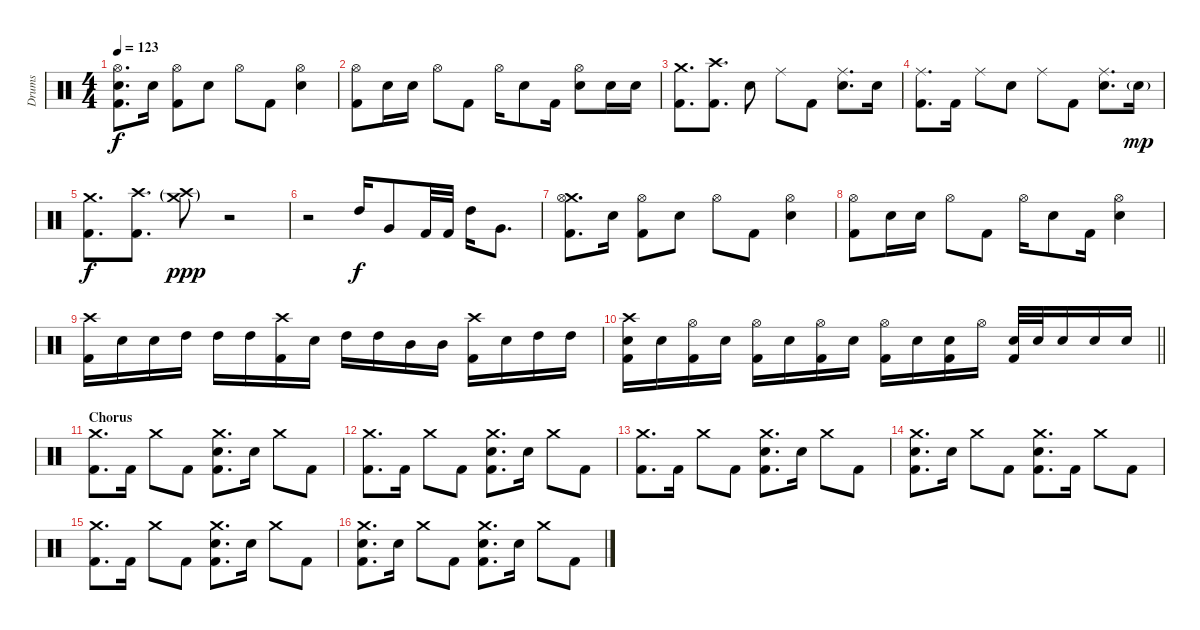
\track ("Drums" "Drums") {instrument percussion}
\staff {score}
\articulation defaults
\ts (4 4)
\tempo 123
\clef neutral
\ks c
("Hi-Hat (open)" "Electric Snare (hit)" "Kick (hit) 2").8{d dy f} "Electric Snare (hit)".16 ("Hi-Hat (open)" "Kick (hit) 2").8 "Electric Snare (hit)".8 "Hi-Hat (open)".8 "Kick (hit) 2".8 ("Hi-Hat (open)" "Electric Snare (hit)").4 |
("Hi-Hat (open)" "Kick (hit) 2").8 "Electric Snare (hit)".16 "Electric Snare (hit)".16 "Hi-Hat (open)".8 "Kick (hit) 2".8 "Hi-Hat (open)".16 "Electric Snare (hit)".8 "Kick (hit) 2".16 ("Hi-Hat (open)" "Electric Snare (hit)").8 "Electric Snare (hit)".16 "Electric Snare (hit)".16 |
("Crash medium (hit)" "Kick (hit) 2").8{d} ("Crash high (hit)" "Kick (hit) 2").8{d} "Electric Snare (hit)".8 "Ride (middle)".8 "Kick (hit) 2".8 ("Ride (middle)" "Electric Snare (hit)").8{d} "Electric Snare (hit)".16 |
("Ride (middle)" "Kick (hit) 2").8{d} "Kick (hit) 2".16 "Ride (middle)".8 "Electric Snare (hit)".8 "Ride (middle)".8 "Kick (hit) 2".8 ("Ride (middle)" "Electric Snare (hit)").8{d} "Electric Snare (hit)"{g}.16{dy mp} |
("Crash medium (hit)" "Kick (hit) 2").8{d dy f} ("Crash high (hit)" "Kick (hit) 2").8{d} ("Crash high (hit)"{g} "Crash medium (hit)"{g}).8{dy ppp} r.2 |
r.2 "High Tom (hit)".16{dy f} "Very Low Tom (hit)".8 "Kick (hit) 2".32 "Kick (hit) 2".32 "High Tom (hit)".16 "Very Low Tom (hit)".8{d} |
("Crash medium (hit)" "Hi-Hat (open)" "Kick (hit) 2").8{d} "Electric Snare (hit)".16 ("Hi-Hat (open)" "Kick (hit) 2").8 "Electric Snare (hit)".8 "Hi-Hat (open)".8 "Kick (hit) 2".8 ("Hi-Hat (open)" "Electric Snare (hit)").4 |
("Hi-Hat (open)" "Kick (hit) 2").8 "Electric Snare (hit)".16 "Electric Snare (hit)".16 "Hi-Hat (open)".8 "Kick (hit) 2".8 "Hi-Hat (open)".16 "Electric Snare (hit)".8 "Kick (hit) 2".16 ("Hi-Hat (open)" "Electric Snare (hit)").4 |
("Crash high (hit)" "Kick (hit) 2").16 "Electric Snare (hit)".16 "Electric Snare (hit)".16 "High Tom (hit)".16 "High Tom (hit)".16 "High Tom (hit)".16 ("Crash high (hit)" "Kick (hit) 2").16 "Electric Snare (hit)".16 "High Tom (hit)".16 "High Tom (hit)".16 "Mid Tom (hit)".16 "Mid Tom (hit)".16 ("Crash high (hit)" "Kick (hit) 2").16 "Electric Snare (hit)".16 "High Tom (hit)".16 "High Tom (hit)".16 |
\barLineRight lightlight
("Crash high (hit)" "Electric Snare (hit)" "Kick (hit) 2").16 "Electric Snare (hit)".16 ("Hi-Hat (open)" "Kick (hit) 2").16 "Electric Snare (hit)".16 ("Hi-Hat (open)" "Kick (hit) 2").16 "Electric Snare (hit)".16 ("Hi-Hat (open)" "Kick (hit) 2").16 "Electric Snare (hit)".16 ("Hi-Hat (open)" "Kick (hit) 2").16 "Electric Snare (hit)".16 ("Electric Snare (hit)" "Kick (hit) 2").16 "Hi-Hat (open)".16 ("Electric Snare (hit)" "Kick (hit) 2").32 "Electric Snare (hit)".32 "Electric Snare (hit)".16 "Electric Snare (hit)".16 "Electric Snare (hit)".16 |
\section ("" "Chorus")
("Crash medium (hit)" "Kick (hit) 2").8{d} "Kick (hit) 2".16 "Crash medium (hit)".8 "Kick (hit) 2".8 ("Crash medium (hit)" "Electric Snare (hit)" "Kick (hit) 2").8{d} "Electric Snare (hit)".16 "Crash medium (hit)".8 "Kick (hit) 2".8 |
("Crash medium (hit)" "Kick (hit) 2").8{d} "Kick (hit) 2".16 "Crash medium (hit)".8 "Kick (hit) 2".8 ("Crash medium (hit)" "Electric Snare (hit)" "Kick (hit) 2").8{d} "Electric Snare (hit)".16 "Crash medium (hit)".8 "Kick (hit) 2".8 |
("Crash medium (hit)" "Kick (hit) 2").8{d} "Kick (hit) 2".16 "Crash medium (hit)".8 "Kick (hit) 2".8 ("Crash medium (hit)" "Electric Snare (hit)" "Kick (hit) 2").8{d} "Electric Snare (hit)".16 "Crash medium (hit)".8 "Kick (hit) 2".8 |
("Crash medium (hit)" "Electric Snare (hit)" "Kick (hit) 2").8{d} "Electric Snare (hit)".16 "Crash medium (hit)".8 "Kick (hit) 2".8 ("Crash medium (hit)" "Electric Snare (hit)" "Kick (hit) 2").8{d} "Kick (hit) 2".16 "Crash medium (hit)".8 "Kick (hit) 2".8 |
("Crash medium (hit)" "Kick (hit) 2").8{d} "Kick (hit) 2".16 "Crash medium (hit)".8 "Kick (hit) 2".8 ("Crash medium (hit)" "Electric Snare (hit)" "Kick (hit) 2").8{d} "Electric Snare (hit)".16 "Crash medium (hit)".8 "Kick (hit) 2".8 |
("Crash medium (hit)" "Electric Snare (hit)" "Kick (hit) 2").8{d} "Electric Snare (hit)".16 "Crash medium (hit)".8 "Kick (hit) 2".8 ("Crash medium (hit)" "Electric Snare (hit)" "Kick (hit) 2").8{d} "Electric Snare (hit)".16 "Crash medium (hit)".8 "Kick (hit) 2".8
